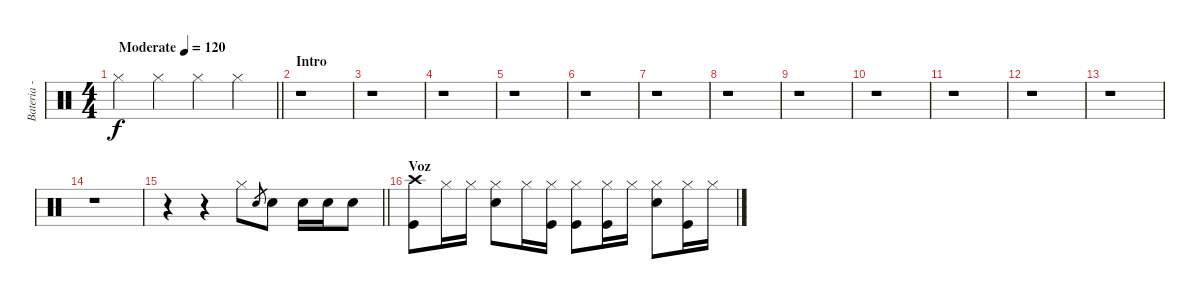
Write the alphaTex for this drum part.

\track ("Bateria - Joaquin" "Bateria - ") {instrument percussion}
\staff {score}
\articulation defaults
\ts (4 4)
\tempo (120 "Moderate")
\clef neutral
\barLineRight lightlight
\ks c "Hi-Hat (closed)".4{dy f} "Hi-Hat (closed)".4 "Hi-Hat (closed)".4 "Hi-Hat (closed)".4
|
\section ("" "Intro")
r.1 |
r.1 |
r.1 |
r.1 |
r.1 |
r.1 |
r.1 |
r.1 |
r.1 |
r.1 |
r.1 |
r.1 |
r.1 |
\barLineRight lightlight
r.4 r.4 "Hi-Hat (closed)".8 "Snare (hit) 2".8{gr} "Snare (hit) 2".8 "Snare (hit) 2".16 "Snare (hit) 2".16 "Snare (hit) 2".8 |
\section ("" "Voz")
("Crash high (hit)" "Kick (hit)").8 "Hi-Hat (closed)".16 "Hi-Hat (closed)".16 ("Hi-Hat (closed)" "Snare (hit) 2").8 "Hi-Hat (closed)".16 ("Hi-Hat (closed)" "Kick (hit)").16 ("Hi-Hat (closed)" "Kick (hit)").8 ("Hi-Hat (closed)" "Kick (hit)").16 "Hi-Hat (closed)".16 ("Hi-Hat (closed)" "Snare (hit) 2").8 ("Hi-Hat (closed)" "Kick (hit)").16 "Hi-Hat (closed)".16
